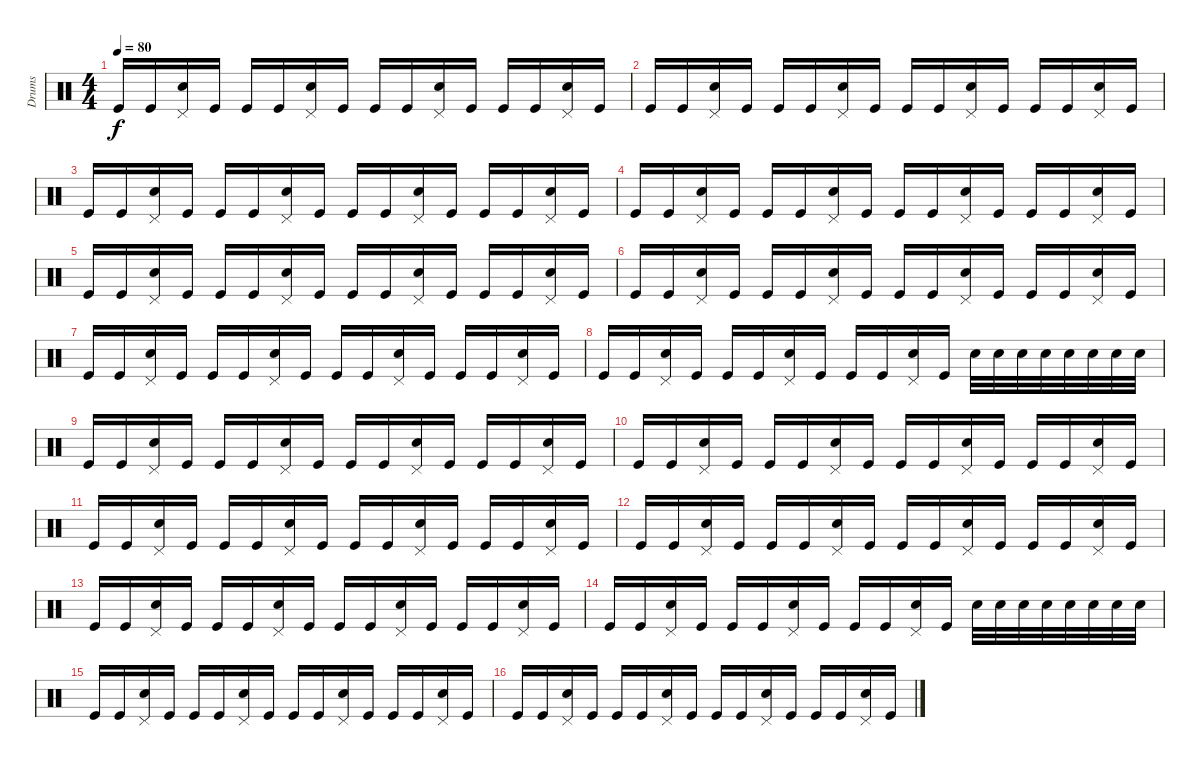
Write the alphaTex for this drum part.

\track ("Drums" "Drums") {instrument percussion}
\staff {score}
\articulation defaults
\ts (4 4)
\tempo 80
\clef neutral
\ks c "Kick (hit)".16{dy f} "Kick (hit)".16
("Snare (hit) 2" "Pedal Hi-Hat (hit)").16 "Kick (hit)".16 "Kick (hit)".16 "Kick (hit)".16 ("Snare (hit) 2" "Pedal Hi-Hat (hit)").16 "Kick (hit)".16 "Kick (hit)".16 "Kick (hit)".16 ("Snare (hit) 2" "Pedal Hi-Hat (hit)").16 "Kick (hit)".16 "Kick (hit)".16 "Kick (hit)".16 ("Snare (hit) 2" "Pedal Hi-Hat (hit)").16 "Kick (hit)".16 |
"Kick (hit)".16 "Kick (hit)".16 ("Snare (hit) 2" "Pedal Hi-Hat (hit)").16 "Kick (hit)".16 "Kick (hit)".16 "Kick (hit)".16 ("Snare (hit) 2" "Pedal Hi-Hat (hit)").16 "Kick (hit)".16 "Kick (hit)".16 "Kick (hit)".16 ("Snare (hit) 2" "Pedal Hi-Hat (hit)").16 "Kick (hit)".16 "Kick (hit)".16 "Kick (hit)".16 ("Snare (hit) 2" "Pedal Hi-Hat (hit)").16 "Kick (hit)".16 |
"Kick (hit)".16 "Kick (hit)".16 ("Snare (hit) 2" "Pedal Hi-Hat (hit)").16 "Kick (hit)".16 "Kick (hit)".16 "Kick (hit)".16 ("Snare (hit) 2" "Pedal Hi-Hat (hit)").16 "Kick (hit)".16 "Kick (hit)".16 "Kick (hit)".16 ("Snare (hit) 2" "Pedal Hi-Hat (hit)").16 "Kick (hit)".16 "Kick (hit)".16 "Kick (hit)".16 ("Snare (hit) 2" "Pedal Hi-Hat (hit)").16 "Kick (hit)".16 |
"Kick (hit)".16 "Kick (hit)".16 ("Snare (hit) 2" "Pedal Hi-Hat (hit)").16 "Kick (hit)".16 "Kick (hit)".16 "Kick (hit)".16 ("Snare (hit) 2" "Pedal Hi-Hat (hit)").16 "Kick (hit)".16 "Kick (hit)".16 "Kick (hit)".16 ("Snare (hit) 2" "Pedal Hi-Hat (hit)").16 "Kick (hit)".16 "Kick (hit)".16 "Kick (hit)".16 ("Snare (hit) 2" "Pedal Hi-Hat (hit)").16 "Kick (hit)".16 |
"Kick (hit)".16 "Kick (hit)".16 ("Snare (hit) 2" "Pedal Hi-Hat (hit)").16 "Kick (hit)".16 "Kick (hit)".16 "Kick (hit)".16 ("Snare (hit) 2" "Pedal Hi-Hat (hit)").16 "Kick (hit)".16 "Kick (hit)".16 "Kick (hit)".16 ("Snare (hit) 2" "Pedal Hi-Hat (hit)").16 "Kick (hit)".16 "Kick (hit)".16 "Kick (hit)".16 ("Snare (hit) 2" "Pedal Hi-Hat (hit)").16 "Kick (hit)".16 |
"Kick (hit)".16 "Kick (hit)".16 ("Snare (hit) 2" "Pedal Hi-Hat (hit)").16 "Kick (hit)".16 "Kick (hit)".16 "Kick (hit)".16 ("Snare (hit) 2" "Pedal Hi-Hat (hit)").16 "Kick (hit)".16 "Kick (hit)".16 "Kick (hit)".16 ("Snare (hit) 2" "Pedal Hi-Hat (hit)").16 "Kick (hit)".16 "Kick (hit)".16 "Kick (hit)".16 ("Snare (hit) 2" "Pedal Hi-Hat (hit)").16 "Kick (hit)".16 |
"Kick (hit)".16 "Kick (hit)".16 ("Snare (hit) 2" "Pedal Hi-Hat (hit)").16 "Kick (hit)".16 "Kick (hit)".16 "Kick (hit)".16 ("Snare (hit) 2" "Pedal Hi-Hat (hit)").16 "Kick (hit)".16 "Kick (hit)".16 "Kick (hit)".16 ("Snare (hit) 2" "Pedal Hi-Hat (hit)").16 "Kick (hit)".16 "Kick (hit)".16 "Kick (hit)".16 ("Snare (hit) 2" "Pedal Hi-Hat (hit)").16 "Kick (hit)".16 |
"Kick (hit)".16 "Kick (hit)".16 ("Snare (hit) 2" "Pedal Hi-Hat (hit)").16 "Kick (hit)".16 "Kick (hit)".16 "Kick (hit)".16 ("Snare (hit) 2" "Pedal Hi-Hat (hit)").16 "Kick (hit)".16 "Kick (hit)".16 "Kick (hit)".16 ("Snare (hit) 2" "Pedal Hi-Hat (hit)").16 "Kick (hit)".16 "Snare (hit) 2".32 "Snare (hit) 2".32 "Snare (hit) 2".32 "Snare (hit) 2".32 "Snare (hit) 2".32 "Snare (hit) 2".32 "Snare (hit) 2".32 "Snare (hit) 2".32 |
"Kick (hit)".16 "Kick (hit)".16 ("Snare (hit) 2" "Pedal Hi-Hat (hit)").16 "Kick (hit)".16 "Kick (hit)".16 "Kick (hit)".16 ("Snare (hit) 2" "Pedal Hi-Hat (hit)").16 "Kick (hit)".16 "Kick (hit)".16 "Kick (hit)".16 ("Snare (hit) 2" "Pedal Hi-Hat (hit)").16 "Kick (hit)".16 "Kick (hit)".16 "Kick (hit)".16 ("Snare (hit) 2" "Pedal Hi-Hat (hit)").16 "Kick (hit)".16 |
"Kick (hit)".16 "Kick (hit)".16 ("Snare (hit) 2" "Pedal Hi-Hat (hit)").16 "Kick (hit)".16 "Kick (hit)".16 "Kick (hit)".16 ("Snare (hit) 2" "Pedal Hi-Hat (hit)").16 "Kick (hit)".16 "Kick (hit)".16 "Kick (hit)".16 ("Snare (hit) 2" "Pedal Hi-Hat (hit)").16 "Kick (hit)".16 "Kick (hit)".16 "Kick (hit)".16 ("Snare (hit) 2" "Pedal Hi-Hat (hit)").16 "Kick (hit)".16 |
"Kick (hit)".16 "Kick (hit)".16 ("Snare (hit) 2" "Pedal Hi-Hat (hit)").16 "Kick (hit)".16 "Kick (hit)".16 "Kick (hit)".16 ("Snare (hit) 2" "Pedal Hi-Hat (hit)").16 "Kick (hit)".16 "Kick (hit)".16 "Kick (hit)".16 ("Snare (hit) 2" "Pedal Hi-Hat (hit)").16 "Kick (hit)".16 "Kick (hit)".16 "Kick (hit)".16 ("Snare (hit) 2" "Pedal Hi-Hat (hit)").16 "Kick (hit)".16 |
"Kick (hit)".16 "Kick (hit)".16 ("Snare (hit) 2" "Pedal Hi-Hat (hit)").16 "Kick (hit)".16 "Kick (hit)".16 "Kick (hit)".16 ("Snare (hit) 2" "Pedal Hi-Hat (hit)").16 "Kick (hit)".16 "Kick (hit)".16 "Kick (hit)".16 ("Snare (hit) 2" "Pedal Hi-Hat (hit)").16 "Kick (hit)".16 "Kick (hit)".16 "Kick (hit)".16 ("Snare (hit) 2" "Pedal Hi-Hat (hit)").16 "Kick (hit)".16 |
"Kick (hit)".16 "Kick (hit)".16 ("Snare (hit) 2" "Pedal Hi-Hat (hit)").16 "Kick (hit)".16 "Kick (hit)".16 "Kick (hit)".16 ("Snare (hit) 2" "Pedal Hi-Hat (hit)").16 "Kick (hit)".16 "Kick (hit)".16 "Kick (hit)".16 ("Snare (hit) 2" "Pedal Hi-Hat (hit)").16 "Kick (hit)".16 "Kick (hit)".16 "Kick (hit)".16 ("Snare (hit) 2" "Pedal Hi-Hat (hit)").16 "Kick (hit)".16 |
"Kick (hit)".16 "Kick (hit)".16 ("Snare (hit) 2" "Pedal Hi-Hat (hit)").16 "Kick (hit)".16 "Kick (hit)".16 "Kick (hit)".16 ("Snare (hit) 2" "Pedal Hi-Hat (hit)").16 "Kick (hit)".16 "Kick (hit)".16 "Kick (hit)".16 ("Snare (hit) 2" "Pedal Hi-Hat (hit)").16 "Kick (hit)".16 "Snare (hit) 2".32 "Snare (hit) 2".32 "Snare (hit) 2".32 "Snare (hit) 2".32 "Snare (hit) 2".32 "Snare (hit) 2".32 "Snare (hit) 2".32 "Snare (hit) 2".32 |
"Kick (hit)".16 "Kick (hit)".16 ("Snare (hit) 2" "Pedal Hi-Hat (hit)").16 "Kick (hit)".16 "Kick (hit)".16 "Kick (hit)".16 ("Snare (hit) 2" "Pedal Hi-Hat (hit)").16 "Kick (hit)".16 "Kick (hit)".16 "Kick (hit)".16 ("Snare (hit) 2" "Pedal Hi-Hat (hit)").16 "Kick (hit)".16 "Kick (hit)".16 "Kick (hit)".16 ("Snare (hit) 2" "Pedal Hi-Hat (hit)").16 "Kick (hit)".16 |
"Kick (hit)".16 "Kick (hit)".16 ("Snare (hit) 2" "Pedal Hi-Hat (hit)").16 "Kick (hit)".16 "Kick (hit)".16 "Kick (hit)".16 ("Snare (hit) 2" "Pedal Hi-Hat (hit)").16 "Kick (hit)".16 "Kick (hit)".16 "Kick (hit)".16 ("Snare (hit) 2" "Pedal Hi-Hat (hit)").16 "Kick (hit)".16 "Kick (hit)".16 "Kick (hit)".16 ("Snare (hit) 2" "Pedal Hi-Hat (hit)").16 "Kick (hit)".16
